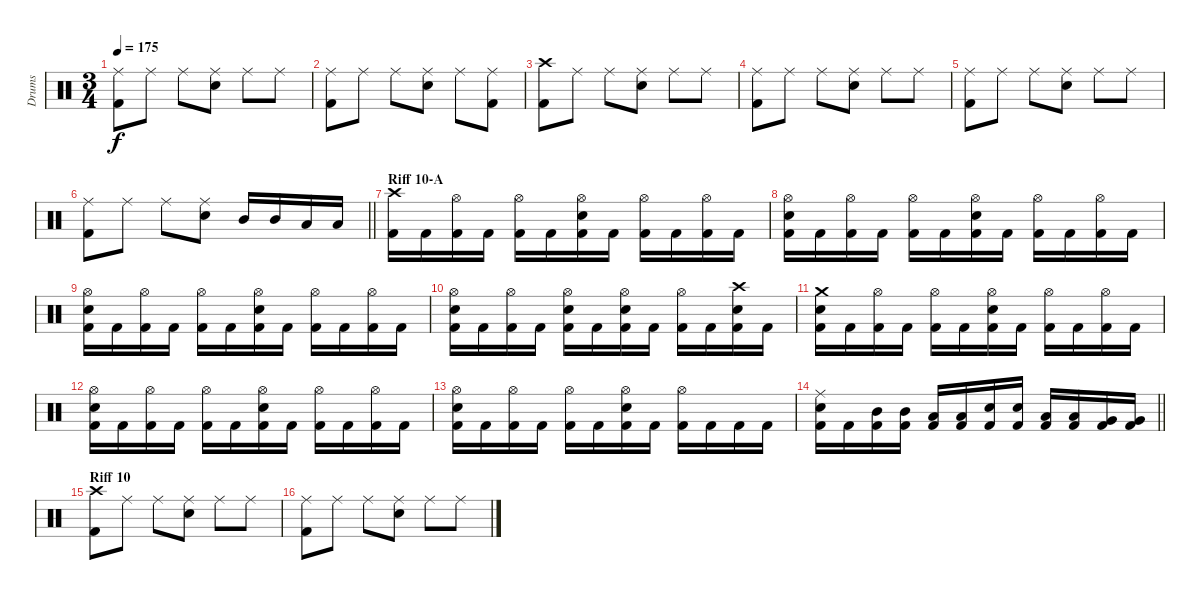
\track ("Drums" "Drums") {instrument percussion}
\staff {score}
\articulation defaults
\ts (3 4)
\tempo 175
\clef neutral
\ks c
("Ride (middle)" "Kick (hit) 2").8{dy f} "Ride (middle)".8 "Ride (middle)".8 ("Ride (middle)" "Electric Snare (hit)").8 "Ride (middle)".8 "Ride (middle)".8 |
("Ride (middle)" "Kick (hit) 2").8 "Ride (middle)".8 "Ride (middle)".8 ("Ride (middle)" "Electric Snare (hit)").8 "Ride (middle)".8 ("Ride (middle)" "Kick (hit) 2").8 |
("Crash high (hit)" "Kick (hit) 2").8 "Ride (middle)".8 "Ride (middle)".8 ("Ride (middle)" "Electric Snare (hit)").8 "Ride (middle)".8 "Ride (middle)".8 |
("Ride (middle)" "Kick (hit) 2").8 "Ride (middle)".8 "Ride (middle)".8 ("Ride (middle)" "Electric Snare (hit)").8 "Ride (middle)".8 "Ride (middle)".8 |
("Ride (middle)" "Kick (hit) 2").8 "Ride (middle)".8 "Ride (middle)".8 ("Ride (middle)" "Electric Snare (hit)").8 "Ride (middle)".8 "Ride (middle)".8 |
\barLineRight lightlight
("Ride (middle)" "Kick (hit) 2").8 "Ride (middle)".8 "Ride (middle)".8 ("Ride (middle)" "Electric Snare (hit)").8 "Mid Tom (hit)".16 "Mid Tom (hit)".16 "Low Tom (hit)".16 "Low Tom (hit)".16 |
\section ("" "Riff 10-A")
("Crash high (hit)" "Kick (hit) 2").16 "Kick (hit) 2".16 ("Hi-Hat (open)" "Kick (hit) 2").16 "Kick (hit) 2".16 ("Hi-Hat (open)" "Kick (hit) 2").16 "Kick (hit) 2".16 ("Hi-Hat (open)" "Electric Snare (hit)" "Kick (hit) 2").16 "Kick (hit) 2".16 ("Hi-Hat (open)" "Kick (hit) 2").16 "Kick (hit) 2".16 ("Hi-Hat (open)" "Kick (hit) 2").16 "Kick (hit) 2".16 |
("Hi-Hat (open)" "Electric Snare (hit)" "Kick (hit) 2").16 "Kick (hit) 2".16 ("Hi-Hat (open)" "Kick (hit) 2").16 "Kick (hit) 2".16 ("Hi-Hat (open)" "Kick (hit) 2").16 "Kick (hit) 2".16 ("Hi-Hat (open)" "Electric Snare (hit)" "Kick (hit) 2").16 "Kick (hit) 2".16 ("Hi-Hat (open)" "Kick (hit) 2").16 "Kick (hit) 2".16 ("Hi-Hat (open)" "Kick (hit) 2").16 "Kick (hit) 2".16 |
("Hi-Hat (open)" "Electric Snare (hit)" "Kick (hit) 2").16 "Kick (hit) 2".16 ("Hi-Hat (open)" "Kick (hit) 2").16 "Kick (hit) 2".16 ("Hi-Hat (open)" "Kick (hit) 2").16 "Kick (hit) 2".16 ("Hi-Hat (open)" "Electric Snare (hit)" "Kick (hit) 2").16 "Kick (hit) 2".16 ("Hi-Hat (open)" "Kick (hit) 2").16 "Kick (hit) 2".16 ("Hi-Hat (open)" "Kick (hit) 2").16 "Kick (hit) 2".16 |
("Hi-Hat (open)" "Electric Snare (hit)" "Kick (hit) 2").16 "Kick (hit) 2".16 ("Hi-Hat (open)" "Kick (hit) 2").16 "Kick (hit) 2".16 ("Hi-Hat (open)" "Electric Snare (hit)" "Kick (hit) 2").16 "Kick (hit) 2".16 ("Hi-Hat (open)" "Electric Snare (hit)" "Kick (hit) 2").16 "Kick (hit) 2".16 ("Hi-Hat (open)" "Kick (hit) 2").16 "Kick (hit) 2".16 ("Crash high (hit)" "Electric Snare (hit)" "Kick (hit) 2").16 "Kick (hit) 2".16 |
("Crash medium (hit)" "Electric Snare (hit)" "Kick (hit) 2").16 "Kick (hit) 2".16 ("Hi-Hat (open)" "Kick (hit) 2").16 "Kick (hit) 2".16 ("Hi-Hat (open)" "Kick (hit) 2").16 "Kick (hit) 2".16 ("Hi-Hat (open)" "Electric Snare (hit)" "Kick (hit) 2").16 "Kick (hit) 2".16 ("Hi-Hat (open)" "Kick (hit) 2").16 "Kick (hit) 2".16 ("Hi-Hat (open)" "Kick (hit) 2").16 "Kick (hit) 2".16 |
("Hi-Hat (open)" "Electric Snare (hit)" "Kick (hit) 2").16 "Kick (hit) 2".16 ("Hi-Hat (open)" "Kick (hit) 2").16 "Kick (hit) 2".16 ("Hi-Hat (open)" "Kick (hit) 2").16 "Kick (hit) 2".16 ("Hi-Hat (open)" "Electric Snare (hit)" "Kick (hit) 2").16 "Kick (hit) 2".16 ("Hi-Hat (open)" "Kick (hit) 2").16 "Kick (hit) 2".16 ("Hi-Hat (open)" "Kick (hit) 2").16 "Kick (hit) 2".16 |
("Hi-Hat (open)" "Electric Snare (hit)" "Kick (hit) 2").16 "Kick (hit) 2".16 ("Hi-Hat (open)" "Kick (hit) 2").16 "Kick (hit) 2".16 ("Hi-Hat (open)" "Kick (hit) 2").16 "Kick (hit) 2".16 ("Hi-Hat (open)" "Electric Snare (hit)" "Kick (hit) 2").16 "Kick (hit) 2".16 ("Hi-Hat (open)" "Kick (hit) 2").16 "Kick (hit) 2".16 "Kick (hit) 2".16 "Kick (hit) 2".16 |
\barLineRight lightlight
("Ride (middle)" "Electric Snare (hit)" "Kick (hit) 2").16 "Kick (hit) 2".16 ("Mid Tom (hit)" "Kick (hit) 2").16 ("Mid Tom (hit)" "Kick (hit) 2").16 ("Low Tom (hit)" "Kick (hit) 2").16 ("Low Tom (hit)" "Kick (hit) 2").16 ("Electric Snare (hit)" "Kick (hit) 2").16 ("Electric Snare (hit)" "Kick (hit) 2").16 ("Low Tom (hit)" "Kick (hit) 2").16 ("Low Tom (hit)" "Kick (hit) 2").16 ("Very Low Tom (hit)" "Kick (hit) 2").16 ("Very Low Tom (hit)" "Kick (hit) 2").16 |
\section ("" "Riff 10")
("Crash high (hit)" "Kick (hit) 2").8 "Ride (middle)".8 "Ride (middle)".8 ("Ride (middle)" "Electric Snare (hit)").8 "Ride (middle)".8 "Ride (middle)".8 |
("Ride (middle)" "Kick (hit) 2").8 "Ride (middle)".8 "Ride (middle)".8 ("Ride (middle)" "Electric Snare (hit)").8 "Ride (middle)".8 "Ride (middle)".8
